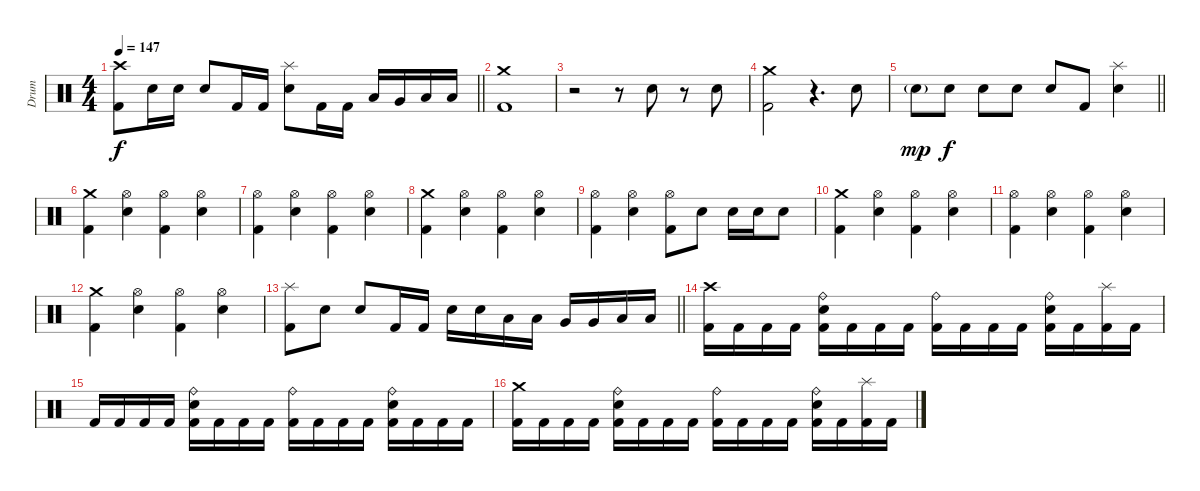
\track ("Drum" "Drum") {instrument percussion}
\staff {score}
\articulation defaults
\ts (4 4)
\tempo 147
\clef neutral
\barLineRight lightlight
\ks c
("Crash high (hit)" "Kick (hit) 2").8{dy f} "Electric Snare (hit)".16 "Electric Snare (hit)".16 "Electric Snare (hit)".8 "Kick (hit) 2".16 "Kick (hit) 2".16 ("Splash (hit)" "Electric Snare (hit)").8 "Kick (hit) 2".16 "Kick (hit) 2".16 "Low Tom (hit)".16 "Very Low Tom (hit)".16 "Low Floor Tom (hit)".16 "Low Floor Tom (hit)".16 |
\section ("" "")
("Crash medium (hit)" "Kick (hit) 2").1 |
r.2 r.8 "Electric Snare (hit)".8 r.8 "Electric Snare (hit)".8 |
("Crash medium (hit)" "Kick (hit) 2").2 r.4{d} "Electric Snare (hit)".8 |
\barLineRight lightlight "Electric Snare (hit)"{g}.8{dy mp} "Electric Snare (hit)".8{dy f} "Electric Snare (hit)".8 "Electric Snare (hit)".8 "Electric Snare (hit)".8 "Kick (hit) 2".8
("Splash (hit)" "Electric Snare (hit)").4 |
\section ("" "")
("Crash medium (hit)" "Kick (hit) 2").4 ("Hi-Hat (open)" "Electric Snare (hit)").4 ("Hi-Hat (open)" "Kick (hit) 2").4 ("Hi-Hat (open)" "Electric Snare (hit)").4 |
("Hi-Hat (open)" "Kick (hit) 2").4 ("Hi-Hat (open)" "Electric Snare (hit)").4 ("Hi-Hat (open)" "Kick (hit) 2").4 ("Hi-Hat (open)" "Electric Snare (hit)").4 |
("Crash medium (hit)" "Kick (hit) 2").4 ("Hi-Hat (open)" "Electric Snare (hit)").4 ("Hi-Hat (open)" "Kick (hit) 2").4 ("Hi-Hat (open)" "Electric Snare (hit)").4 |
("Hi-Hat (open)" "Kick (hit) 2").4 ("Hi-Hat (open)" "Electric Snare (hit)").4 ("Hi-Hat (open)" "Kick (hit) 2").8 "Electric Snare (hit)".8 "Electric Snare (hit)".16 "Electric Snare (hit)".16 "Electric Snare (hit)".8 |
("Crash medium (hit)" "Kick (hit) 2").4 ("Hi-Hat (open)" "Electric Snare (hit)").4 ("Hi-Hat (open)" "Kick (hit) 2").4 ("Hi-Hat (open)" "Electric Snare (hit)").4 |
("Hi-Hat (open)" "Kick (hit) 2").4 ("Hi-Hat (open)" "Electric Snare (hit)").4 ("Hi-Hat (open)" "Kick (hit) 2").4 ("Hi-Hat (open)" "Electric Snare (hit)").4 |
("Crash medium (hit)" "Kick (hit) 2").4 ("Hi-Hat (open)" "Electric Snare (hit)").4 ("Hi-Hat (open)" "Kick (hit) 2").4 ("Hi-Hat (open)" "Electric Snare (hit)").4 |
\barLineRight lightlight
("Splash (hit)" "Kick (hit) 2").8 "Electric Snare (hit)".8 "Electric Snare (hit)".8 "Kick (hit) 2".16 "Kick (hit) 2".16 "Electric Snare (hit)".16 "Electric Snare (hit)".16 "Low Tom (hit)".16 "Low Tom (hit)".16 "Very Low Tom (hit)".16 "Very Low Tom (hit)".16 "Low Floor Tom (hit)".16 "Low Floor Tom (hit)".16 |
\section ("" "")
("Crash high (hit)" "Kick (hit) 2").16 "Kick (hit) 2".16 "Kick (hit) 2".16 "Kick (hit) 2".16 ("Ride (bell)" "Electric Snare (hit)" "Kick (hit) 2").16 "Kick (hit) 2".16 "Kick (hit) 2".16 "Kick (hit) 2".16 ("Ride (bell)" "Kick (hit) 2").16 "Kick (hit) 2".16 "Kick (hit) 2".16 "Kick (hit) 2".16 ("Ride (bell)" "Electric Snare (hit)" "Kick (hit) 2").16 "Kick (hit) 2".16 ("Splash (hit)" "Kick (hit) 2").16 "Kick (hit) 2".16 |
"Kick (hit) 2".16 "Kick (hit) 2".16 "Kick (hit) 2".16 "Kick (hit) 2".16 ("Ride (bell)" "Electric Snare (hit)" "Kick (hit) 2").16 "Kick (hit) 2".16 "Kick (hit) 2".16 "Kick (hit) 2".16 ("Ride (bell)" "Kick (hit) 2").16 "Kick (hit) 2".16 "Kick (hit) 2".16 "Kick (hit) 2".16 ("Ride (bell)" "Electric Snare (hit)" "Kick (hit) 2").16 "Kick (hit) 2".16 "Kick (hit) 2".16 "Kick (hit) 2".16 |
("Crash medium (hit)" "Kick (hit) 2").16 "Kick (hit) 2".16 "Kick (hit) 2".16 "Kick (hit) 2".16 ("Ride (bell)" "Electric Snare (hit)" "Kick (hit) 2").16 "Kick (hit) 2".16 "Kick (hit) 2".16 "Kick (hit) 2".16 ("Ride (bell)" "Kick (hit) 2").16 "Kick (hit) 2".16 "Kick (hit) 2".16 "Kick (hit) 2".16 ("Ride (bell)" "Electric Snare (hit)" "Kick (hit) 2").16 "Kick (hit) 2".16 ("Splash (hit)" "Kick (hit) 2").16 "Kick (hit) 2".16
